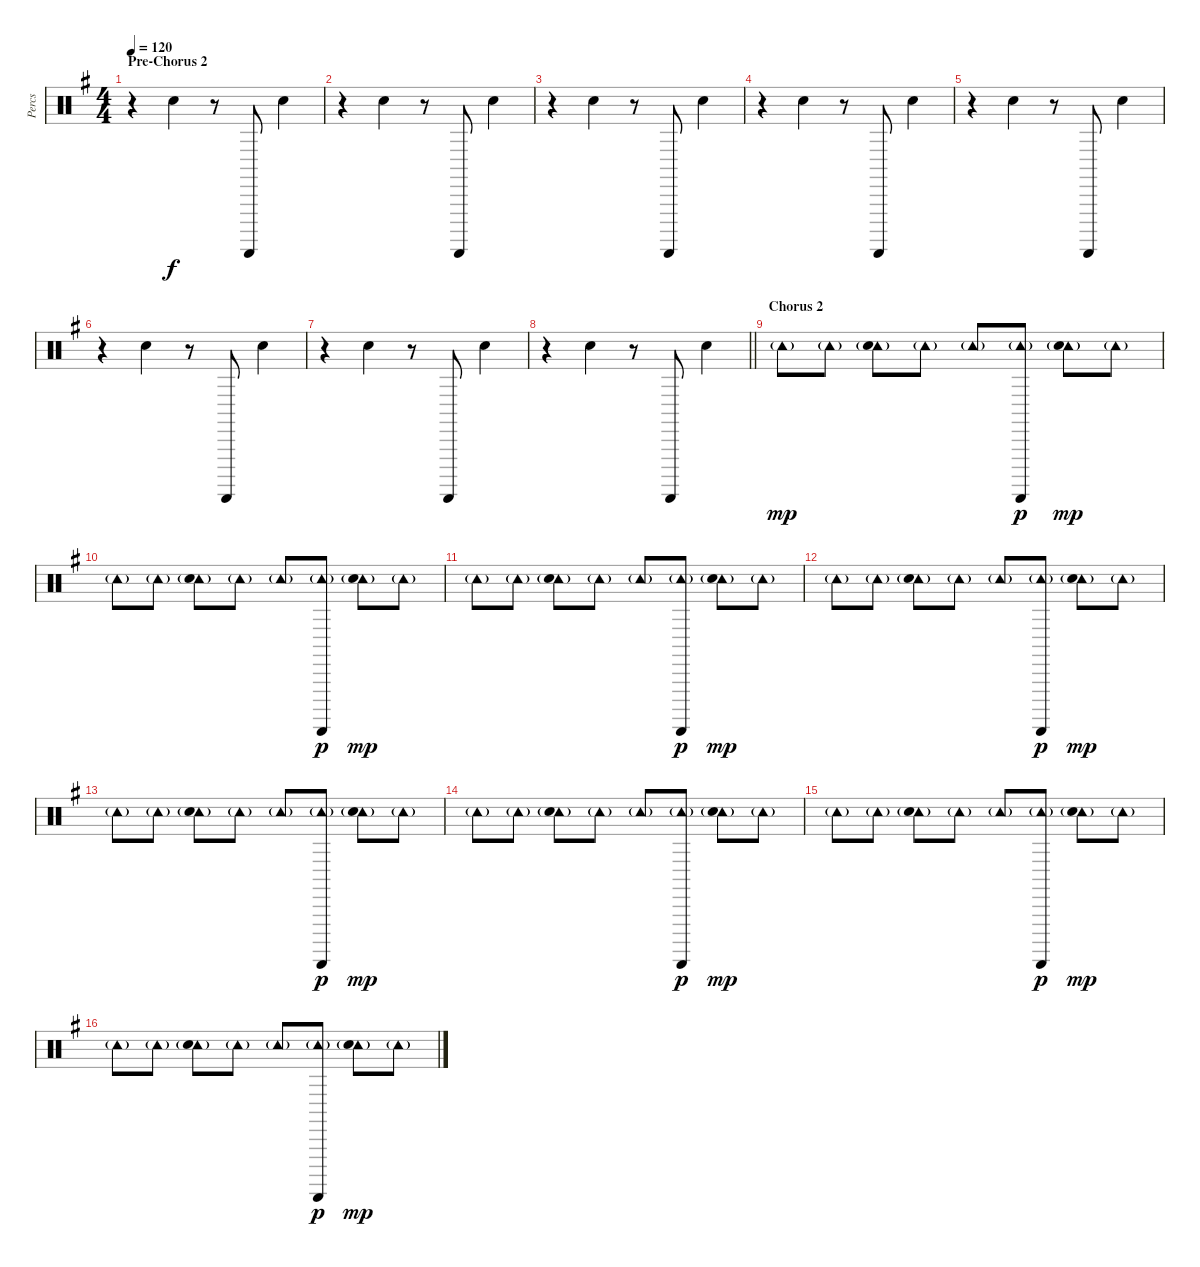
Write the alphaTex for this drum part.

\track ("Percs" "Percs") {instrument percussion}
\staff {score}
\articulation defaults
\ts (4 4)
\section ("" "Pre-Chorus 2")
\tempo 120
\clef neutral
\ks g
r.4{dy f} "Hand Clap (hit)".4 r.8 "Guiro (scrap-return)".8 "Hand Clap (hit)".4 |
r.4 "Hand Clap (hit)".4 r.8 "Guiro (scrap-return)".8 "Hand Clap (hit)".4 |
r.4 "Hand Clap (hit)".4 r.8 "Guiro (scrap-return)".8 "Hand Clap (hit)".4 |
r.4 "Hand Clap (hit)".4 r.8 "Guiro (scrap-return)".8 "Hand Clap (hit)".4 |
r.4 "Hand Clap (hit)".4 r.8 "Guiro (scrap-return)".8 "Hand Clap (hit)".4 |
r.4 "Hand Clap (hit)".4 r.8 "Guiro (scrap-return)".8 "Hand Clap (hit)".4 |
r.4 "Hand Clap (hit)".4 r.8 "Guiro (scrap-return)".8 "Hand Clap (hit)".4 |
\barLineRight lightlight
r.4 "Hand Clap (hit)".4 r.8 "Guiro (scrap-return)".8 "Hand Clap (hit)".4 |
\section ("" "Chorus 2")
"Tambourine (hit)"{g}.8{dy mp} "Tambourine (hit)"{g}.8 ("Tambourine (hit)"{g} "Hand Clap (hit)").8 "Tambourine (hit)"{g}.8 "Tambourine (hit)"{g}.8 ("Tambourine (hit)"{g} "Guiro (scrap-return)").8{dy p} ("Tambourine (hit)"{g} "Hand Clap (hit)").8{dy mp} "Tambourine (hit)"{g}.8 |
"Tambourine (hit)"{g}.8 "Tambourine (hit)"{g}.8 ("Tambourine (hit)"{g} "Hand Clap (hit)").8 "Tambourine (hit)"{g}.8 "Tambourine (hit)"{g}.8 ("Tambourine (hit)"{g} "Guiro (scrap-return)").8{dy p} ("Tambourine (hit)"{g} "Hand Clap (hit)").8{dy mp} "Tambourine (hit)"{g}.8 |
"Tambourine (hit)"{g}.8 "Tambourine (hit)"{g}.8 ("Tambourine (hit)"{g} "Hand Clap (hit)").8 "Tambourine (hit)"{g}.8 "Tambourine (hit)"{g}.8 ("Tambourine (hit)"{g} "Guiro (scrap-return)").8{dy p} ("Tambourine (hit)"{g} "Hand Clap (hit)").8{dy mp} "Tambourine (hit)"{g}.8 |
"Tambourine (hit)"{g}.8 "Tambourine (hit)"{g}.8 ("Tambourine (hit)"{g} "Hand Clap (hit)").8 "Tambourine (hit)"{g}.8 "Tambourine (hit)"{g}.8 ("Tambourine (hit)"{g} "Guiro (scrap-return)").8{dy p} ("Tambourine (hit)"{g} "Hand Clap (hit)").8{dy mp} "Tambourine (hit)"{g}.8 |
"Tambourine (hit)"{g}.8 "Tambourine (hit)"{g}.8 ("Tambourine (hit)"{g} "Hand Clap (hit)").8 "Tambourine (hit)"{g}.8 "Tambourine (hit)"{g}.8 ("Tambourine (hit)"{g} "Guiro (scrap-return)").8{dy p} ("Tambourine (hit)"{g} "Hand Clap (hit)").8{dy mp} "Tambourine (hit)"{g}.8 |
"Tambourine (hit)"{g}.8 "Tambourine (hit)"{g}.8 ("Tambourine (hit)"{g} "Hand Clap (hit)").8 "Tambourine (hit)"{g}.8 "Tambourine (hit)"{g}.8 ("Tambourine (hit)"{g} "Guiro (scrap-return)").8{dy p} ("Tambourine (hit)"{g} "Hand Clap (hit)").8{dy mp} "Tambourine (hit)"{g}.8 |
"Tambourine (hit)"{g}.8 "Tambourine (hit)"{g}.8 ("Tambourine (hit)"{g} "Hand Clap (hit)").8 "Tambourine (hit)"{g}.8 "Tambourine (hit)"{g}.8 ("Tambourine (hit)"{g} "Guiro (scrap-return)").8{dy p} ("Tambourine (hit)"{g} "Hand Clap (hit)").8{dy mp} "Tambourine (hit)"{g}.8 |
"Tambourine (hit)"{g}.8 "Tambourine (hit)"{g}.8 ("Tambourine (hit)"{g} "Hand Clap (hit)").8 "Tambourine (hit)"{g}.8 "Tambourine (hit)"{g}.8 ("Tambourine (hit)"{g} "Guiro (scrap-return)").8{dy p} ("Tambourine (hit)"{g} "Hand Clap (hit)").8{dy mp} "Tambourine (hit)"{g}.8
